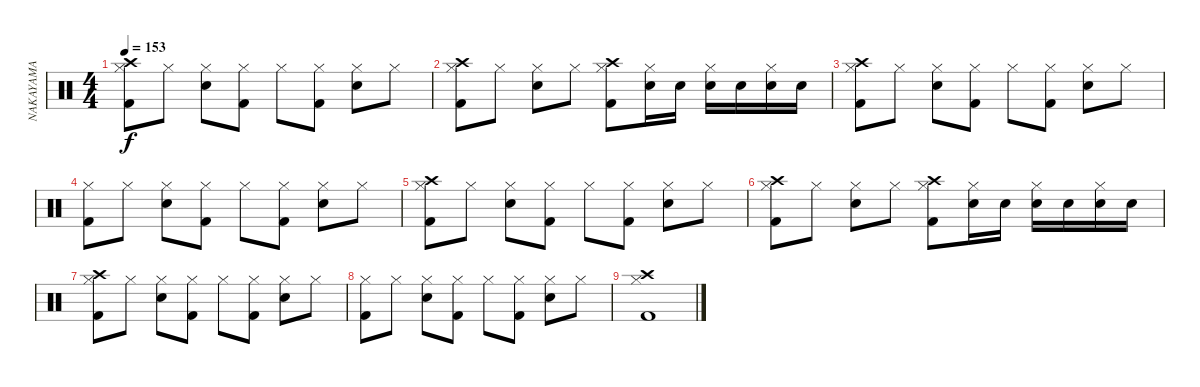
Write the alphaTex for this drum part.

\track ("NAKAYAMA" "NAKAYAMA") {instrument percussion}
\staff {score}
\articulation defaults
\ts (4 4)
\tempo 153
\clef neutral
\ks c
("Crash high (hit)" "Hi-Hat (closed)" "Kick (hit) 2").8{dy f} "Hi-Hat (closed)".8 ("Hi-Hat (closed)" "Snare (hit) 2").8 ("Hi-Hat (closed)" "Kick (hit) 2").8 "Hi-Hat (closed)".8 ("Hi-Hat (closed)" "Kick (hit) 2").8 ("Hi-Hat (closed)" "Snare (hit) 2").8 "Hi-Hat (closed)".8 |
("Crash high (hit)" "Hi-Hat (closed)" "Kick (hit) 2").8 "Hi-Hat (closed)".8 ("Hi-Hat (closed)" "Snare (hit) 2").8 "Hi-Hat (closed)".8 ("Crash high (hit)" "Hi-Hat (closed)" "Kick (hit) 2").8 ("Hi-Hat (closed)" "Snare (hit) 2").16 "Snare (hit) 2".16 ("Hi-Hat (closed)" "Snare (hit) 2").16 "Snare (hit) 2".16 ("Hi-Hat (closed)" "Snare (hit) 2").16 "Snare (hit) 2".16 |
("Crash high (hit)" "Hi-Hat (closed)" "Kick (hit) 2").8 "Hi-Hat (closed)".8 ("Hi-Hat (closed)" "Snare (hit) 2").8 ("Hi-Hat (closed)" "Kick (hit) 2").8 "Hi-Hat (closed)".8 ("Hi-Hat (closed)" "Kick (hit) 2").8 ("Hi-Hat (closed)" "Snare (hit) 2").8 "Hi-Hat (closed)".8 |
("Hi-Hat (closed)" "Kick (hit) 2").8 "Hi-Hat (closed)".8 ("Hi-Hat (closed)" "Snare (hit) 2").8 ("Hi-Hat (closed)" "Kick (hit) 2").8 "Hi-Hat (closed)".8 ("Hi-Hat (closed)" "Kick (hit) 2").8 ("Hi-Hat (closed)" "Snare (hit) 2").8 "Hi-Hat (closed)".8 |
("Crash high (hit)" "Hi-Hat (closed)" "Kick (hit) 2").8 "Hi-Hat (closed)".8 ("Hi-Hat (closed)" "Snare (hit) 2").8 ("Hi-Hat (closed)" "Kick (hit) 2").8 "Hi-Hat (closed)".8 ("Hi-Hat (closed)" "Kick (hit) 2").8 ("Hi-Hat (closed)" "Snare (hit) 2").8 "Hi-Hat (closed)".8 |
("Crash high (hit)" "Hi-Hat (closed)" "Kick (hit) 2").8 "Hi-Hat (closed)".8 ("Hi-Hat (closed)" "Snare (hit) 2").8 "Hi-Hat (closed)".8 ("Crash high (hit)" "Hi-Hat (closed)" "Kick (hit) 2").8 ("Hi-Hat (closed)" "Snare (hit) 2").16 "Snare (hit) 2".16 ("Hi-Hat (closed)" "Snare (hit) 2").16 "Snare (hit) 2".16 ("Hi-Hat (closed)" "Snare (hit) 2").16 "Snare (hit) 2".16 |
("Crash high (hit)" "Hi-Hat (closed)" "Kick (hit) 2").8 "Hi-Hat (closed)".8 ("Hi-Hat (closed)" "Snare (hit) 2").8 ("Hi-Hat (closed)" "Kick (hit) 2").8 "Hi-Hat (closed)".8 ("Hi-Hat (closed)" "Kick (hit) 2").8 ("Hi-Hat (closed)" "Snare (hit) 2").8 "Hi-Hat (closed)".8 |
("Hi-Hat (closed)" "Kick (hit) 2").8 "Hi-Hat (closed)".8 ("Hi-Hat (closed)" "Snare (hit) 2").8 ("Hi-Hat (closed)" "Kick (hit) 2").8 "Hi-Hat (closed)".8 ("Hi-Hat (closed)" "Kick (hit) 2").8 ("Hi-Hat (closed)" "Snare (hit) 2").8 "Hi-Hat (closed)".8 |
("Crash high (hit)" "Hi-Hat (closed)" "Kick (hit) 2").1
